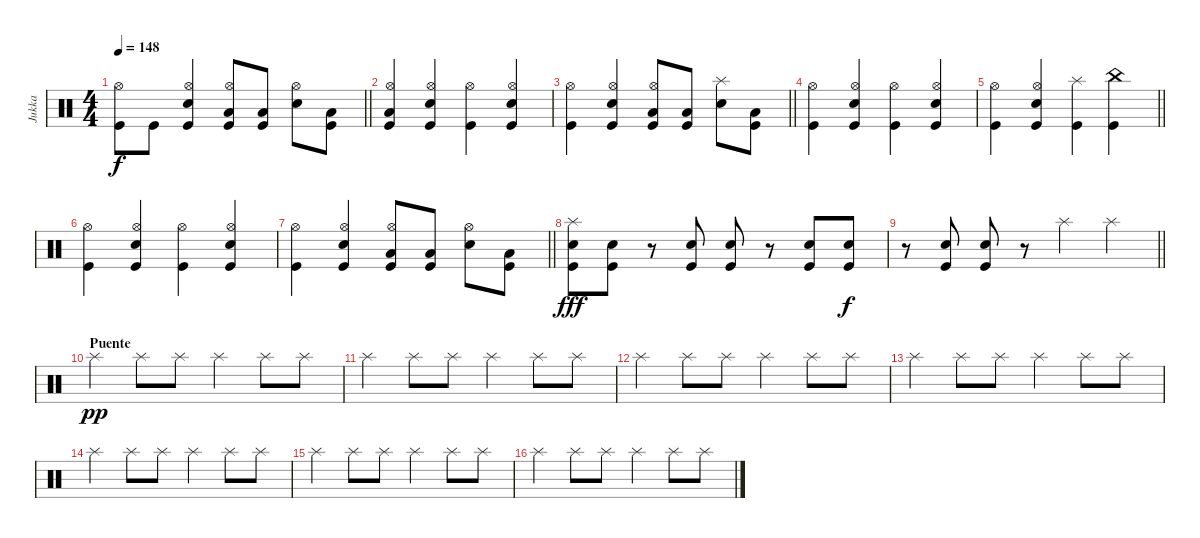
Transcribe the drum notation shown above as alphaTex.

\track ("Jukka" "Jukka") {instrument percussion}
\staff {score}
\articulation defaults
\ts (4 4)
\tempo 148
\clef neutral
\barLineRight lightlight
\ks c
("Kick (hit)" "Hi-Hat (open)").8{dy f} "Kick (hit)".8 ("Kick (hit)" "Snare (hit) 2" "Hi-Hat (open)").4 ("Kick (hit)" "Low Floor Tom (hit)" "Hi-Hat (open)").8 ("Kick (hit)" "Low Floor Tom (hit)").8 ("Snare (hit) 2" "Hi-Hat (open)").8 ("Kick (hit)" "Low Floor Tom (hit)").8 |
("Kick (hit)" "Low Floor Tom (hit)" "Hi-Hat (open)").4 ("Kick (hit)" "Snare (hit) 2" "Hi-Hat (open)").4 ("Kick (hit)" "Hi-Hat (open)").4 ("Kick (hit)" "Snare (hit) 2" "Hi-Hat (open)").4 |
\barLineRight lightlight
("Kick (hit)" "Hi-Hat (open)").4 ("Kick (hit)" "Snare (hit) 2" "Hi-Hat (open)").4 ("Kick (hit)" "Low Floor Tom (hit)" "Hi-Hat (open)").8 ("Kick (hit)" "Low Floor Tom (hit)").8 ("Snare (hit) 2" "Splash (hit)").8 ("Kick (hit)" "Low Floor Tom (hit)").8 |
("Kick (hit)" "Hi-Hat (open)").4 ("Kick (hit)" "Snare (hit) 2" "Hi-Hat (open)").4 ("Kick (hit)" "Hi-Hat (open)").4 ("Kick (hit)" "Snare (hit) 2" "Hi-Hat (open)").4 |
\barLineRight lightlight
("Kick (hit)" "Hi-Hat (open)").4 ("Kick (hit)" "Snare (hit) 2" "Hi-Hat (open)").4 ("Kick (hit)" "Splash (hit)").4 ("Kick (hit)" "China (hit)").4 |
("Kick (hit)" "Hi-Hat (open)").4 ("Kick (hit)" "Snare (hit) 2" "Hi-Hat (open)").4 ("Kick (hit)" "Hi-Hat (open)").4 ("Kick (hit)" "Snare (hit) 2" "Hi-Hat (open)").4 |
\barLineRight lightlight
("Kick (hit)" "Hi-Hat (open)").4 ("Kick (hit)" "Snare (hit) 2" "Hi-Hat (open)").4 ("Kick (hit)" "Low Floor Tom (hit)" "Hi-Hat (open)").8 ("Kick (hit)" "Low Floor Tom (hit)").8 ("Snare (hit) 2" "Hi-Hat (open)").8 ("Kick (hit)" "Low Floor Tom (hit)").8 |
("Kick (hit)" "Snare (hit) 2" "Splash (hit)").8{dy fff} ("Kick (hit)" "Snare (hit) 2").8 r.8 ("Kick (hit)" "Snare (hit) 2").8 ("Kick (hit)" "Snare (hit) 2").8 r.8 ("Kick (hit)" "Snare (hit) 2").8 ("Kick (hit)" "Snare (hit) 2").8{dy f} |
\barLineRight lightlight
r.8 ("Kick (hit)" "Snare (hit) 2").8 ("Kick (hit)" "Snare (hit) 2").8 r.8 "Splash (hit)".4 "Splash (hit)".4 |
\section ("" "Puente")
"Splash (hit)".4{dy pp} "Splash (hit)".8 "Splash (hit)".8 "Splash (hit)".4 "Splash (hit)".8 "Splash (hit)".8 |
"Splash (hit)".4 "Splash (hit)".8 "Splash (hit)".8 "Splash (hit)".4 "Splash (hit)".8 "Splash (hit)".8 |
"Splash (hit)".4 "Splash (hit)".8 "Splash (hit)".8 "Splash (hit)".4 "Splash (hit)".8 "Splash (hit)".8 |
"Splash (hit)".4 "Splash (hit)".8 "Splash (hit)".8 "Splash (hit)".4 "Splash (hit)".8 "Splash (hit)".8 |
"Splash (hit)".4 "Splash (hit)".8 "Splash (hit)".8 "Splash (hit)".4 "Splash (hit)".8 "Splash (hit)".8 |
"Splash (hit)".4 "Splash (hit)".8 "Splash (hit)".8 "Splash (hit)".4 "Splash (hit)".8 "Splash (hit)".8 |
"Splash (hit)".4 "Splash (hit)".8 "Splash (hit)".8 "Splash (hit)".4 "Splash (hit)".8 "Splash (hit)".8
